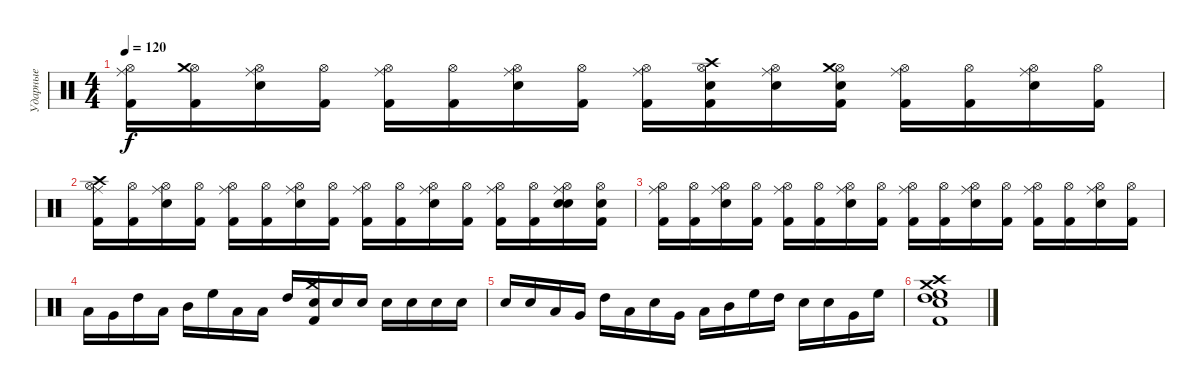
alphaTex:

\track ("Ударные" "Ударные") {instrument percussion}
\staff {score}
\articulation defaults
\ts (4 4)
\tempo 120
\clef neutral
\ks c
("Hi-Hat (open)" "Ride (middle)" "Kick (hit) 2").16{dy f} ("Hi-Hat (open)" "Kick (hit) 2" "Crash medium (hit)").16 ("Hi-Hat (open)" "Ride (middle)" "Snare (hit) 2").16 ("Hi-Hat (open)" "Kick (hit) 2").16 ("Hi-Hat (open)" "Ride (middle)" "Kick (hit) 2").16 ("Hi-Hat (open)" "Kick (hit) 2").16 ("Hi-Hat (open)" "Ride (middle)" "Snare (hit) 2").16 ("Hi-Hat (open)" "Kick (hit) 2").16 ("Hi-Hat (open)" "Ride (middle)" "Kick (hit) 2").16 ("Hi-Hat (open)" "Kick (hit) 2" "Electric Snare (hit)" "Crash high (hit)").16 ("Hi-Hat (open)" "Ride (middle)" "Snare (hit) 2").16 ("Hi-Hat (open)" "Kick (hit) 2" "Crash medium (hit)" "Electric Snare (hit)").16 ("Hi-Hat (open)" "Ride (middle)" "Kick (hit) 2").16 ("Hi-Hat (open)" "Kick (hit) 2").16 ("Hi-Hat (open)" "Ride (middle)" "Snare (hit) 2").16 ("Hi-Hat (open)" "Kick (hit) 2").16 |
("Hi-Hat (open)" "Ride (middle)" "Kick (hit) 2" "Crash high (hit)").16 ("Hi-Hat (open)" "Kick (hit) 2").16 ("Hi-Hat (open)" "Ride (middle)" "Snare (hit) 2").16 ("Hi-Hat (open)" "Kick (hit) 2").16 ("Hi-Hat (open)" "Ride (middle)" "Kick (hit) 2").16 ("Hi-Hat (open)" "Kick (hit) 2").16 ("Hi-Hat (open)" "Ride (middle)" "Snare (hit) 2").16 ("Hi-Hat (open)" "Kick (hit) 2").16 ("Hi-Hat (open)" "Ride (middle)" "Kick (hit) 2").16 ("Hi-Hat (open)" "Kick (hit) 2").16 ("Hi-Hat (open)" "Ride (middle)" "Snare (hit) 2").16 ("Hi-Hat (open)" "Kick (hit) 2").16 ("Hi-Hat (open)" "Ride (middle)" "Kick (hit) 2").16 ("Hi-Hat (open)" "Kick (hit) 2").16 ("Hi-Hat (open)" "Ride (middle)" "Snare (hit) 2" "Electric Snare (hit)").16 ("Hi-Hat (open)" "Kick (hit) 2" "Electric Snare (hit)").16 |
("Hi-Hat (open)" "Ride (middle)" "Kick (hit) 2").16 ("Hi-Hat (open)" "Kick (hit) 2").16 ("Hi-Hat (open)" "Ride (middle)" "Snare (hit) 2").16 ("Hi-Hat (open)" "Kick (hit) 2").16 ("Hi-Hat (open)" "Ride (middle)" "Kick (hit) 2").16 ("Hi-Hat (open)" "Kick (hit) 2").16 ("Hi-Hat (open)" "Ride (middle)" "Snare (hit) 2").16 ("Hi-Hat (open)" "Kick (hit) 2").16 ("Hi-Hat (open)" "Ride (middle)" "Kick (hit) 2").16 ("Hi-Hat (open)" "Kick (hit) 2").16 ("Hi-Hat (open)" "Ride (middle)" "Snare (hit) 2").16 ("Hi-Hat (open)" "Kick (hit) 2").16 ("Hi-Hat (open)" "Ride (middle)" "Kick (hit) 2").16 ("Hi-Hat (open)" "Kick (hit) 2").16 ("Hi-Hat (open)" "Ride (middle)" "Snare (hit) 2").16 ("Hi-Hat (open)" "Kick (hit) 2").16 |
"Low Floor Tom (hit)".16 "Very Low Tom (hit)".16 "High Tom (hit)".16 "Low Tom (hit)".16 "Mid Tom (hit)".16 "High Floor Tom (hit)".16 "Low Floor Tom (hit)".16 "Low Tom (hit)".16 "High Tom (hit)".16 ("Electric Snare (hit)" "Kick (hit) 2" "Crash medium (hit)").16 "Electric Snare (hit)".16 "Electric Snare (hit)".16 "Electric Snare (hit)".16 "Electric Snare (hit)".16 "Electric Snare (hit)".16 "Electric Snare (hit)".16 |
"Electric Snare (hit)".16 "Electric Snare (hit)".16 "Low Floor Tom (hit)".16 "Very Low Tom (hit)".16 "High Tom (hit)".16 "Low Floor Tom (hit)".16 "Electric Snare (hit)".16 "Very Low Tom (hit)".16 "Low Tom (hit)".16 "Mid Tom (hit)".16 "High Floor Tom (hit)".16 "High Tom (hit)".16 "Electric Snare (hit)".16 "Electric Snare (hit)".16 "Very Low Tom (hit)".16 "High Floor Tom (hit)".16 |
("Electric Snare (hit)" "Crash high (hit)" "High Floor Tom (hit)" "High Tom (hit)" "Crash medium (hit)" "Kick (hit) 2").1
